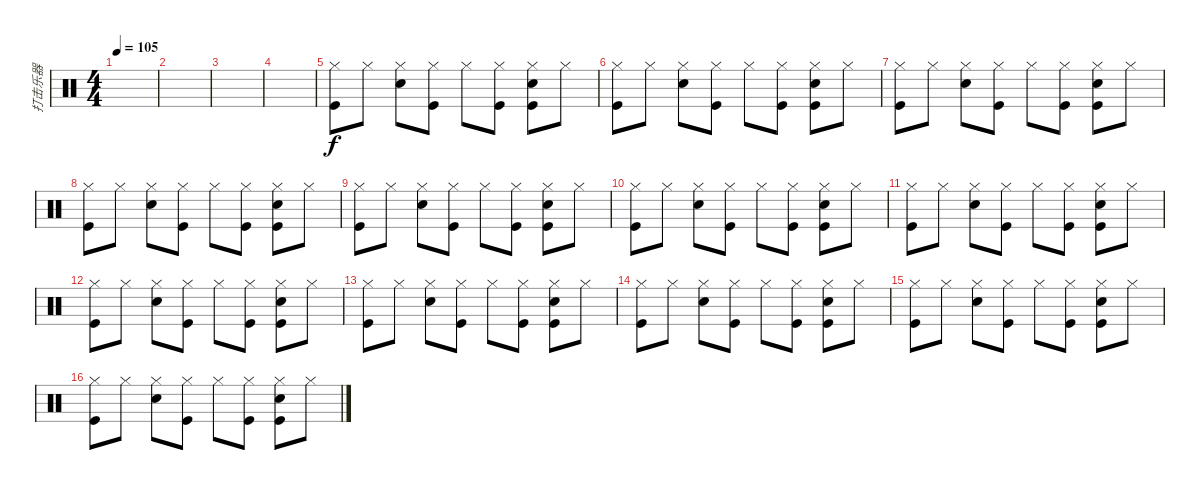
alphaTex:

\track ("打击乐器" "打击乐器") {instrument percussion}
\staff {score}
\articulation defaults
\ts (4 4)
\tempo 105
\clef neutral
\ks c
|
|
|
|
("Hi-Hat (closed)" "Kick (hit)").8 "Hi-Hat (closed)".8 ("Hi-Hat (closed)" "Snare (hit) 2").8 ("Hi-Hat (closed)" "Kick (hit)").8 "Hi-Hat (closed)".8 ("Hi-Hat (closed)" "Kick (hit)").8 ("Hi-Hat (closed)" "Snare (hit) 2" "Kick (hit)").8 "Hi-Hat (closed)".8 |
("Hi-Hat (closed)" "Kick (hit)").8 "Hi-Hat (closed)".8 ("Hi-Hat (closed)" "Snare (hit) 2").8 ("Hi-Hat (closed)" "Kick (hit)").8 "Hi-Hat (closed)".8 ("Hi-Hat (closed)" "Kick (hit)").8 ("Hi-Hat (closed)" "Snare (hit) 2" "Kick (hit)").8 "Hi-Hat (closed)".8 |
("Hi-Hat (closed)" "Kick (hit)").8 "Hi-Hat (closed)".8 ("Hi-Hat (closed)" "Snare (hit) 2").8 ("Hi-Hat (closed)" "Kick (hit)").8 "Hi-Hat (closed)".8 ("Hi-Hat (closed)" "Kick (hit)").8 ("Hi-Hat (closed)" "Snare (hit) 2" "Kick (hit)").8 "Hi-Hat (closed)".8 |
("Hi-Hat (closed)" "Kick (hit)").8 "Hi-Hat (closed)".8 ("Hi-Hat (closed)" "Snare (hit) 2").8 ("Hi-Hat (closed)" "Kick (hit)").8 "Hi-Hat (closed)".8 ("Hi-Hat (closed)" "Kick (hit)").8 ("Hi-Hat (closed)" "Snare (hit) 2" "Kick (hit)").8 "Hi-Hat (closed)".8 |
("Hi-Hat (closed)" "Kick (hit)").8 "Hi-Hat (closed)".8 ("Hi-Hat (closed)" "Snare (hit) 2").8 ("Hi-Hat (closed)" "Kick (hit)").8 "Hi-Hat (closed)".8 ("Hi-Hat (closed)" "Kick (hit)").8 ("Hi-Hat (closed)" "Snare (hit) 2" "Kick (hit)").8 "Hi-Hat (closed)".8 |
("Hi-Hat (closed)" "Kick (hit)").8 "Hi-Hat (closed)".8 ("Hi-Hat (closed)" "Snare (hit) 2").8 ("Hi-Hat (closed)" "Kick (hit)").8 "Hi-Hat (closed)".8 ("Hi-Hat (closed)" "Kick (hit)").8 ("Hi-Hat (closed)" "Snare (hit) 2" "Kick (hit)").8 "Hi-Hat (closed)".8 |
("Hi-Hat (closed)" "Kick (hit)").8 "Hi-Hat (closed)".8 ("Hi-Hat (closed)" "Snare (hit) 2").8 ("Hi-Hat (closed)" "Kick (hit)").8 "Hi-Hat (closed)".8 ("Hi-Hat (closed)" "Kick (hit)").8 ("Hi-Hat (closed)" "Snare (hit) 2" "Kick (hit)").8 "Hi-Hat (closed)".8 |
("Hi-Hat (closed)" "Kick (hit)").8 "Hi-Hat (closed)".8 ("Hi-Hat (closed)" "Snare (hit) 2").8 ("Hi-Hat (closed)" "Kick (hit)").8 "Hi-Hat (closed)".8 ("Hi-Hat (closed)" "Kick (hit)").8 ("Hi-Hat (closed)" "Snare (hit) 2" "Kick (hit)").8 "Hi-Hat (closed)".8 |
("Hi-Hat (closed)" "Kick (hit)").8 "Hi-Hat (closed)".8 ("Hi-Hat (closed)" "Snare (hit) 2").8 ("Hi-Hat (closed)" "Kick (hit)").8 "Hi-Hat (closed)".8 ("Hi-Hat (closed)" "Kick (hit)").8 ("Hi-Hat (closed)" "Snare (hit) 2" "Kick (hit)").8 "Hi-Hat (closed)".8 |
("Hi-Hat (closed)" "Kick (hit)").8 "Hi-Hat (closed)".8 ("Hi-Hat (closed)" "Snare (hit) 2").8 ("Hi-Hat (closed)" "Kick (hit)").8 "Hi-Hat (closed)".8 ("Hi-Hat (closed)" "Kick (hit)").8 ("Hi-Hat (closed)" "Snare (hit) 2" "Kick (hit)").8 "Hi-Hat (closed)".8 |
("Hi-Hat (closed)" "Kick (hit)").8 "Hi-Hat (closed)".8 ("Hi-Hat (closed)" "Snare (hit) 2").8 ("Hi-Hat (closed)" "Kick (hit)").8 "Hi-Hat (closed)".8 ("Hi-Hat (closed)" "Kick (hit)").8 ("Hi-Hat (closed)" "Snare (hit) 2" "Kick (hit)").8 "Hi-Hat (closed)".8 |
("Hi-Hat (closed)" "Kick (hit)").8 "Hi-Hat (closed)".8 ("Hi-Hat (closed)" "Snare (hit) 2").8 ("Hi-Hat (closed)" "Kick (hit)").8 "Hi-Hat (closed)".8 ("Hi-Hat (closed)" "Kick (hit)").8 ("Hi-Hat (closed)" "Snare (hit) 2" "Kick (hit)").8 "Hi-Hat (closed)".8
